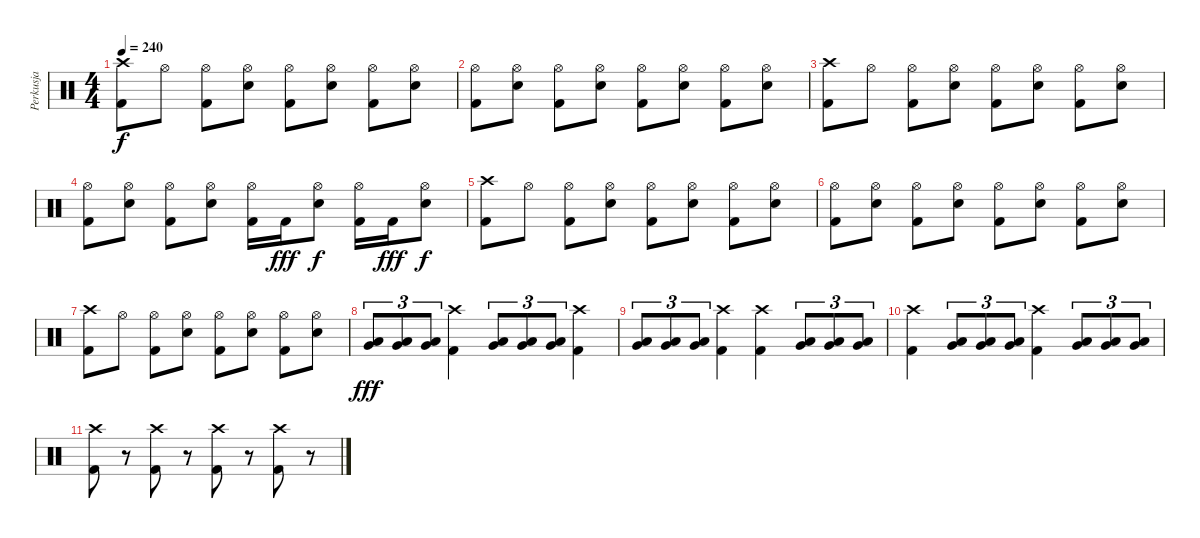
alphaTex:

\track ("Perkusja" "Perkusja") {instrument percussion bank 10}
\staff {score}
\articulation defaults
\ts (4 4)
\tempo 240
\clef neutral
\ks c
("Crash high (hit)" "Kick (hit) 2").8{dy f} "Hi-Hat (open)".8 ("Hi-Hat (open)" "Kick (hit) 2").8 ("Hi-Hat (open)" "Snare (hit) 2").8 ("Hi-Hat (open)" "Kick (hit) 2").8 ("Hi-Hat (open)" "Snare (hit) 2").8 ("Hi-Hat (open)" "Kick (hit) 2").8 ("Hi-Hat (open)" "Snare (hit) 2").8 |
("Hi-Hat (open)" "Kick (hit) 2").8 ("Hi-Hat (open)" "Snare (hit) 2").8 ("Hi-Hat (open)" "Kick (hit) 2").8 ("Hi-Hat (open)" "Snare (hit) 2").8 ("Hi-Hat (open)" "Kick (hit) 2").8 ("Hi-Hat (open)" "Snare (hit) 2").8 ("Hi-Hat (open)" "Kick (hit) 2").8 ("Hi-Hat (open)" "Snare (hit) 2").8 |
("Crash high (hit)" "Kick (hit) 2").8 "Hi-Hat (open)".8 ("Hi-Hat (open)" "Kick (hit) 2").8 ("Hi-Hat (open)" "Snare (hit) 2").8 ("Hi-Hat (open)" "Kick (hit) 2").8 ("Hi-Hat (open)" "Snare (hit) 2").8 ("Hi-Hat (open)" "Kick (hit) 2").8 ("Hi-Hat (open)" "Snare (hit) 2").8 |
("Hi-Hat (open)" "Kick (hit) 2").8 ("Hi-Hat (open)" "Snare (hit) 2").8 ("Hi-Hat (open)" "Kick (hit) 2").8 ("Hi-Hat (open)" "Snare (hit) 2").8 ("Hi-Hat (open)" "Kick (hit) 2").16 "Kick (hit) 2".16{dy fff} ("Hi-Hat (open)" "Snare (hit) 2").8{dy f} ("Hi-Hat (open)" "Kick (hit) 2").16 "Kick (hit) 2".16{dy fff} ("Hi-Hat (open)" "Snare (hit) 2").8{dy f} |
("Crash high (hit)" "Kick (hit) 2").8 "Hi-Hat (open)".8 ("Hi-Hat (open)" "Kick (hit) 2").8 ("Hi-Hat (open)" "Snare (hit) 2").8 ("Hi-Hat (open)" "Kick (hit) 2").8 ("Hi-Hat (open)" "Snare (hit) 2").8 ("Hi-Hat (open)" "Kick (hit) 2").8 ("Hi-Hat (open)" "Snare (hit) 2").8 |
("Hi-Hat (open)" "Kick (hit) 2").8 ("Hi-Hat (open)" "Snare (hit) 2").8 ("Hi-Hat (open)" "Kick (hit) 2").8 ("Hi-Hat (open)" "Snare (hit) 2").8 ("Hi-Hat (open)" "Kick (hit) 2").8 ("Hi-Hat (open)" "Snare (hit) 2").8 ("Hi-Hat (open)" "Kick (hit) 2").8 ("Hi-Hat (open)" "Snare (hit) 2").8 |
("Crash high (hit)" "Kick (hit) 2").8 "Hi-Hat (open)".8 ("Hi-Hat (open)" "Kick (hit) 2").8 ("Hi-Hat (open)" "Snare (hit) 2").8 ("Hi-Hat (open)" "Kick (hit) 2").8 ("Hi-Hat (open)" "Snare (hit) 2").8 ("Hi-Hat (open)" "Kick (hit) 2").8 ("Hi-Hat (open)" "Snare (hit) 2").8 |
("Very Low Tom (hit)" "Low Floor Tom (hit)").8{tu (3 2) dy fff} ("Very Low Tom (hit)" "Low Floor Tom (hit)").8{tu (3 2)} ("Very Low Tom (hit)" "Low Floor Tom (hit)").8{tu (3 2)} ("Crash high (hit)" "Kick (hit) 2").4 ("Very Low Tom (hit)" "Low Floor Tom (hit)").8{tu (3 2)} ("Very Low Tom (hit)" "Low Floor Tom (hit)").8{tu (3 2)} ("Very Low Tom (hit)" "Low Floor Tom (hit)").8{tu (3 2)} ("Crash high (hit)" "Kick (hit) 2").4 |
("Very Low Tom (hit)" "Low Floor Tom (hit)").8{tu (3 2)} ("Very Low Tom (hit)" "Low Floor Tom (hit)").8{tu (3 2)} ("Very Low Tom (hit)" "Low Floor Tom (hit)").8{tu (3 2)} ("Crash high (hit)" "Kick (hit) 2").4 ("Crash high (hit)" "Kick (hit) 2").4 ("Very Low Tom (hit)" "Low Floor Tom (hit)").8{tu (3 2)} ("Very Low Tom (hit)" "Low Floor Tom (hit)").8{tu (3 2)} ("Very Low Tom (hit)" "Low Floor Tom (hit)").8{tu (3 2)} |
("Crash high (hit)" "Kick (hit) 2").4 ("Very Low Tom (hit)" "Low Floor Tom (hit)").8{tu (3 2)} ("Very Low Tom (hit)" "Low Floor Tom (hit)").8{tu (3 2)} ("Very Low Tom (hit)" "Low Floor Tom (hit)").8{tu (3 2)} ("Crash high (hit)" "Kick (hit) 2").4 ("Very Low Tom (hit)" "Low Floor Tom (hit)").8{tu (3 2)} ("Very Low Tom (hit)" "Low Floor Tom (hit)").8{tu (3 2)} ("Very Low Tom (hit)" "Low Floor Tom (hit)").8{tu (3 2)} |
("Crash high (hit)" "Kick (hit) 2").8 r.8 ("Crash high (hit)" "Kick (hit) 2").8 r.8 ("Crash high (hit)" "Kick (hit) 2").8 r.8 ("Crash high (hit)" "Kick (hit) 2").8 r.8
